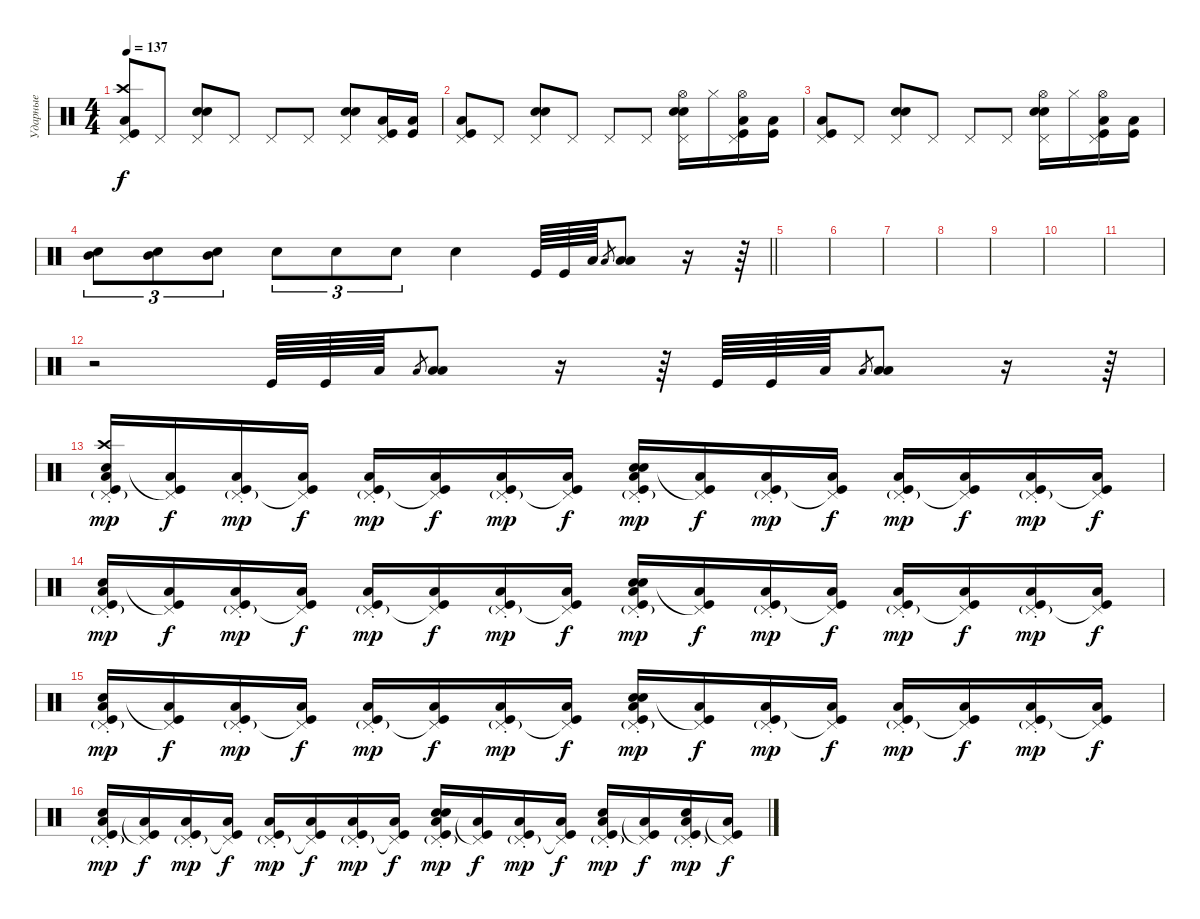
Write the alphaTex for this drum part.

\track ("Ударные" "Ударные") {instrument percussion}
\staff {score}
\articulation defaults
\ts (4 4)
\tempo 137
\clef neutral
\ks c
("Pedal Hi-Hat (hit)" "Crash high (hit)" "Kick (hit)" "Low Tom (hit)").8{dy f} "Pedal Hi-Hat (hit)".8 ("Pedal Hi-Hat (hit)" "Electric Snare (hit)" "Snare (hit) 2").8 "Pedal Hi-Hat (hit)".8 "Pedal Hi-Hat (hit)".8 "Pedal Hi-Hat (hit)".8 ("Pedal Hi-Hat (hit)" "Electric Snare (hit)" "Snare (hit) 2").8 ("Pedal Hi-Hat (hit)" "Kick (hit)" "Low Tom (hit)").16 ("Kick (hit)" "Low Tom (hit)").16 |
("Pedal Hi-Hat (hit)" "Kick (hit)" "Low Tom (hit)").8 "Pedal Hi-Hat (hit)".8 ("Pedal Hi-Hat (hit)" "Electric Snare (hit)" "Snare (hit) 2").8 "Pedal Hi-Hat (hit)".8 "Pedal Hi-Hat (hit)".8 "Pedal Hi-Hat (hit)".8 ("Pedal Hi-Hat (hit)" "Hi-Hat (open)" "Electric Snare (hit)" "Snare (hit) 2").16 "Hi-Hat (closed)".16 ("Pedal Hi-Hat (hit)" "Hi-Hat (open)" "Kick (hit)" "Low Tom (hit)").16 ("Kick (hit)" "Low Tom (hit)").16 |
("Pedal Hi-Hat (hit)" "Kick (hit)" "Low Tom (hit)").8 "Pedal Hi-Hat (hit)".8 ("Pedal Hi-Hat (hit)" "Electric Snare (hit)" "Snare (hit) 2").8 "Pedal Hi-Hat (hit)".8 "Pedal Hi-Hat (hit)".8 "Pedal Hi-Hat (hit)".8 ("Pedal Hi-Hat (hit)" "Hi-Hat (open)" "Electric Snare (hit)" "Snare (hit) 2").16 "Hi-Hat (closed)".16 ("Pedal Hi-Hat (hit)" "Hi-Hat (open)" "Kick (hit)" "Low Tom (hit)").16 ("Kick (hit)" "Low Tom (hit)").16 |
\barLineRight lightlight
("Mid Tom (hit)" "Snare (hit) 2").8{tu (3 2)} ("Mid Tom (hit)" "Snare (hit) 2").8{tu (3 2)} ("Mid Tom (hit)" "Snare (hit) 2").8{tu (3 2)} "Electric Snare (hit)".8{tu (3 2)} "Electric Snare (hit)".8{tu (3 2)} "Electric Snare (hit)".8{tu (3 2)} "Electric Snare (hit)".4 "Kick (hit)".64 "Kick (hit)".64 "Low Floor Tom (hit)".64 "Low Tom (hit)".8{gr} ("Low Floor Tom (hit)" "Low Floor Tom (hit)").8 r.16 r.64 |
|
|
|
|
|
|
|
r.2 "Kick (hit)".64 "Kick (hit)".64 "Low Floor Tom (hit)".64 "Low Tom (hit)".8{gr} ("Low Floor Tom (hit)" "Low Floor Tom (hit)").8 r.16 r.64 "Kick (hit)".64 "Kick (hit)".64 "Low Floor Tom (hit)".64 "Low Tom (hit)".8{gr} ("Low Floor Tom (hit)" "Low Floor Tom (hit)").8 r.16 r.64 |
("Kick (hit)" "Low Tom (hit)" "Electric Snare (hit)" "Crash high (hit)" "Pedal Hi-Hat (hit)"{g st}).16{dy mp} ("Kick (hit)" "Low Tom (hit)" "Pedal Hi-Hat (hit)"{t}).16{dy f} ("Kick (hit)" "Low Tom (hit)" "Pedal Hi-Hat (hit)"{g st}).16{dy mp} ("Kick (hit)" "Low Tom (hit)" "Pedal Hi-Hat (hit)"{t}).16{dy f} ("Kick (hit)" "Low Tom (hit)" "Pedal Hi-Hat (hit)"{g st}).16{dy mp} ("Kick (hit)" "Low Tom (hit)" "Pedal Hi-Hat (hit)"{t}).16{dy f} ("Kick (hit)" "Low Tom (hit)" "Pedal Hi-Hat (hit)"{g st}).16{dy mp} ("Kick (hit)" "Low Tom (hit)" "Pedal Hi-Hat (hit)"{t}).16{dy f} ("Kick (hit)" "Low Tom (hit)" "Electric Snare (hit)" "Snare (hit) 2" "Pedal Hi-Hat (hit)"{g st}).16{dy mp} ("Kick (hit)" "Low Tom (hit)" "Pedal Hi-Hat (hit)"{t}).16{dy f} ("Kick (hit)" "Low Tom (hit)" "Pedal Hi-Hat (hit)"{g st}).16{dy mp} ("Kick (hit)" "Low Tom (hit)" "Pedal Hi-Hat (hit)"{t}).16{dy f} ("Kick (hit)" "Low Tom (hit)" "Pedal Hi-Hat (hit)"{g st}).16{dy mp} ("Kick (hit)" "Low Tom (hit)" "Pedal Hi-Hat (hit)"{t}).16{dy f} ("Kick (hit)" "Low Tom (hit)" "Pedal Hi-Hat (hit)"{g st}).16{dy mp} ("Kick (hit)" "Low Tom (hit)" "Pedal Hi-Hat (hit)"{t}).16{dy f} |
("Kick (hit)" "Low Tom (hit)" "Electric Snare (hit)" "Pedal Hi-Hat (hit)"{g st}).16{dy mp} ("Kick (hit)" "Low Tom (hit)" "Pedal Hi-Hat (hit)"{t}).16{dy f} ("Kick (hit)" "Low Tom (hit)" "Pedal Hi-Hat (hit)"{g st}).16{dy mp} ("Kick (hit)" "Low Tom (hit)" "Pedal Hi-Hat (hit)"{t}).16{dy f} ("Kick (hit)" "Low Tom (hit)" "Pedal Hi-Hat (hit)"{g st}).16{dy mp} ("Kick (hit)" "Low Tom (hit)" "Pedal Hi-Hat (hit)"{t}).16{dy f} ("Kick (hit)" "Low Tom (hit)" "Pedal Hi-Hat (hit)"{g st}).16{dy mp} ("Kick (hit)" "Low Tom (hit)" "Pedal Hi-Hat (hit)"{t}).16{dy f} ("Kick (hit)" "Low Tom (hit)" "Electric Snare (hit)" "Snare (hit) 2" "Pedal Hi-Hat (hit)"{g st}).16{dy mp} ("Kick (hit)" "Low Tom (hit)" "Pedal Hi-Hat (hit)"{t}).16{dy f} ("Kick (hit)" "Low Tom (hit)" "Pedal Hi-Hat (hit)"{g st}).16{dy mp} ("Kick (hit)" "Low Tom (hit)" "Pedal Hi-Hat (hit)"{t}).16{dy f} ("Kick (hit)" "Low Tom (hit)" "Pedal Hi-Hat (hit)"{g st}).16{dy mp} ("Kick (hit)" "Low Tom (hit)" "Pedal Hi-Hat (hit)"{t}).16{dy f} ("Kick (hit)" "Low Tom (hit)" "Pedal Hi-Hat (hit)"{g st}).16{dy mp} ("Kick (hit)" "Low Tom (hit)" "Pedal Hi-Hat (hit)"{t}).16{dy f} |
("Kick (hit)" "Low Tom (hit)" "Electric Snare (hit)" "Pedal Hi-Hat (hit)"{g st}).16{dy mp} ("Kick (hit)" "Low Tom (hit)" "Pedal Hi-Hat (hit)"{t}).16{dy f} ("Kick (hit)" "Low Tom (hit)" "Pedal Hi-Hat (hit)"{g st}).16{dy mp} ("Kick (hit)" "Low Tom (hit)" "Pedal Hi-Hat (hit)"{t}).16{dy f} ("Kick (hit)" "Low Tom (hit)" "Pedal Hi-Hat (hit)"{g st}).16{dy mp} ("Kick (hit)" "Low Tom (hit)" "Pedal Hi-Hat (hit)"{t}).16{dy f} ("Kick (hit)" "Low Tom (hit)" "Pedal Hi-Hat (hit)"{g st}).16{dy mp} ("Kick (hit)" "Low Tom (hit)" "Pedal Hi-Hat (hit)"{t}).16{dy f} ("Kick (hit)" "Low Tom (hit)" "Electric Snare (hit)" "Snare (hit) 2" "Pedal Hi-Hat (hit)"{g st}).16{dy mp} ("Kick (hit)" "Low Tom (hit)" "Pedal Hi-Hat (hit)"{t}).16{dy f} ("Kick (hit)" "Low Tom (hit)" "Pedal Hi-Hat (hit)"{g st}).16{dy mp} ("Kick (hit)" "Low Tom (hit)" "Pedal Hi-Hat (hit)"{t}).16{dy f} ("Kick (hit)" "Low Tom (hit)" "Pedal Hi-Hat (hit)"{g st}).16{dy mp} ("Kick (hit)" "Low Tom (hit)" "Pedal Hi-Hat (hit)"{t}).16{dy f} ("Kick (hit)" "Low Tom (hit)" "Pedal Hi-Hat (hit)"{g st}).16{dy mp} ("Kick (hit)" "Low Tom (hit)" "Pedal Hi-Hat (hit)"{t}).16{dy f} |
("Kick (hit)" "Low Tom (hit)" "Electric Snare (hit)" "Pedal Hi-Hat (hit)"{g st}).16{dy mp} ("Kick (hit)" "Low Tom (hit)" "Pedal Hi-Hat (hit)"{t}).16{dy f} ("Kick (hit)" "Low Tom (hit)" "Pedal Hi-Hat (hit)"{g st}).16{dy mp} ("Kick (hit)" "Low Tom (hit)" "Pedal Hi-Hat (hit)"{t}).16{dy f} ("Kick (hit)" "Low Tom (hit)" "Pedal Hi-Hat (hit)"{g st}).16{dy mp} ("Kick (hit)" "Low Tom (hit)" "Pedal Hi-Hat (hit)"{t}).16{dy f} ("Kick (hit)" "Low Tom (hit)" "Pedal Hi-Hat (hit)"{g st}).16{dy mp} ("Kick (hit)" "Low Tom (hit)" "Pedal Hi-Hat (hit)"{t}).16{dy f} ("Kick (hit)" "Low Tom (hit)" "Electric Snare (hit)" "Snare (hit) 2" "Pedal Hi-Hat (hit)"{g st}).16{dy mp} ("Kick (hit)" "Low Tom (hit)" "Pedal Hi-Hat (hit)"{t}).16{dy f} ("Kick (hit)" "Low Tom (hit)" "Pedal Hi-Hat (hit)"{g st}).16{dy mp} ("Kick (hit)" "Low Tom (hit)" "Pedal Hi-Hat (hit)"{t}).16{dy f} ("Kick (hit)" "Low Tom (hit)" "Electric Snare (hit)" "Pedal Hi-Hat (hit)"{g st}).16{dy mp} ("Kick (hit)" "Low Tom (hit)" "Pedal Hi-Hat (hit)"{t}).16{dy f} ("Kick (hit)" "Low Tom (hit)" "Electric Snare (hit)" "Pedal Hi-Hat (hit)"{g st}).16{dy mp} ("Kick (hit)" "Low Tom (hit)" "Pedal Hi-Hat (hit)"{t}).16{dy f}
